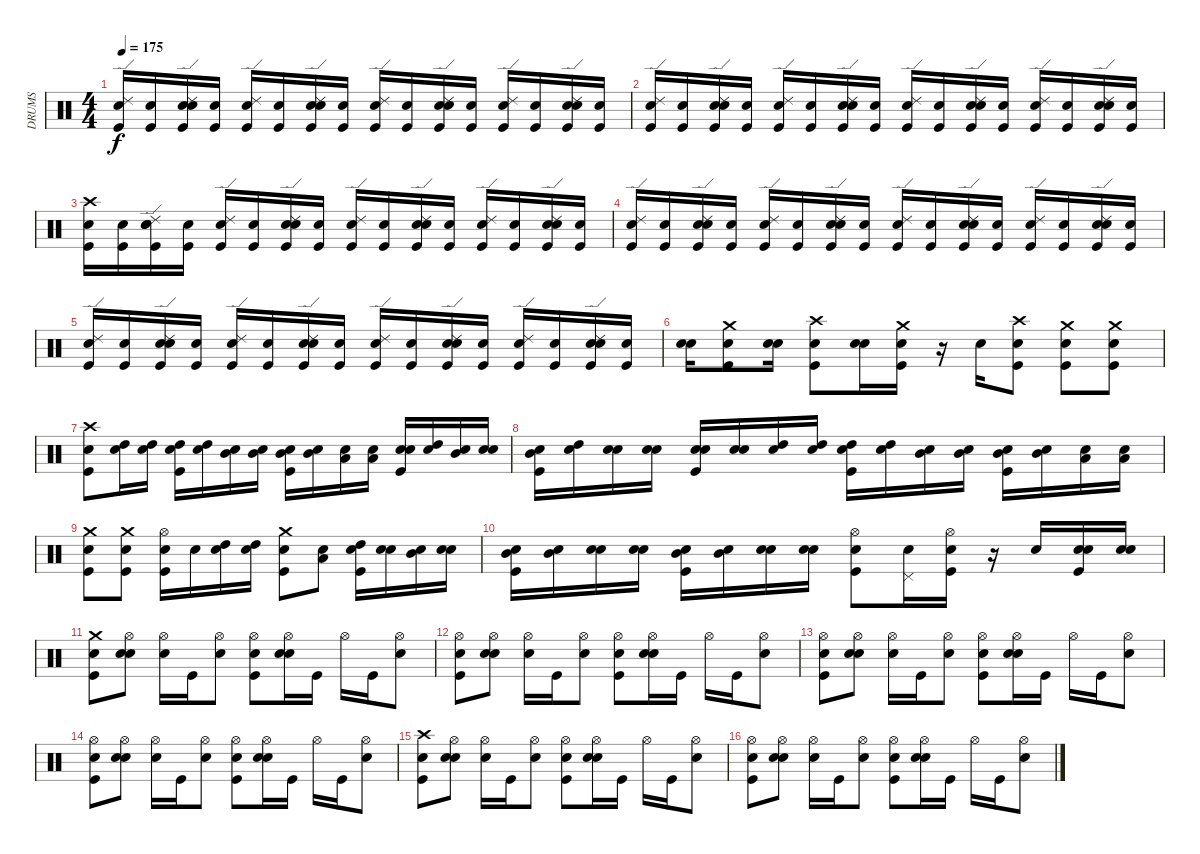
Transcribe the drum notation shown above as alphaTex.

\track ("DRUMS" "DRUMS") {instrument percussion}
\staff {score}
\articulation defaults
\ts (4 4)
\tempo 175
\clef neutral
\ks c
("Snare (hit)" "Kick (hit)" "Ride (edge) 2").16{dy f} ("Snare (hit)" "Kick (hit)").16 ("Snare (hit)" "Kick (hit)" "Snare (hit) 2" "Ride (edge) 2").16 ("Snare (hit)" "Kick (hit)").16 ("Snare (hit)" "Kick (hit)" "Ride (edge) 2").16 ("Snare (hit)" "Kick (hit)").16 ("Snare (hit)" "Kick (hit)" "Snare (hit) 2" "Ride (edge) 2").16 ("Snare (hit)" "Kick (hit)").16 ("Snare (hit)" "Kick (hit)" "Ride (edge) 2").16 ("Snare (hit)" "Kick (hit)").16 ("Snare (hit)" "Kick (hit)" "Snare (hit) 2" "Ride (edge) 2").16 ("Snare (hit)" "Kick (hit)").16 ("Snare (hit)" "Kick (hit)" "Ride (edge) 2").16 ("Snare (hit)" "Kick (hit)").16 ("Snare (hit)" "Kick (hit)" "Snare (hit) 2" "Ride (edge) 2").16 ("Snare (hit)" "Kick (hit)").16 |
("Snare (hit)" "Kick (hit)" "Ride (edge) 2").16 ("Snare (hit)" "Kick (hit)").16 ("Snare (hit)" "Kick (hit)" "Snare (hit) 2" "Ride (edge) 2").16 ("Snare (hit)" "Kick (hit)").16 ("Snare (hit)" "Kick (hit)" "Ride (edge) 2").16 ("Snare (hit)" "Kick (hit)").16 ("Snare (hit)" "Kick (hit)" "Snare (hit) 2" "Ride (edge) 2").16 ("Snare (hit)" "Kick (hit)").16 ("Snare (hit)" "Kick (hit)" "Ride (edge) 2").16 ("Snare (hit)" "Kick (hit)").16 ("Snare (hit)" "Kick (hit)" "Snare (hit) 2" "Ride (edge) 2").16 ("Snare (hit)" "Kick (hit)").16 ("Snare (hit)" "Kick (hit)" "Ride (edge) 2").16 ("Snare (hit)" "Kick (hit)").16 ("Snare (hit)" "Kick (hit)" "Snare (hit) 2" "Ride (edge) 2").16 ("Snare (hit)" "Kick (hit)").16 |
("Snare (hit)" "Kick (hit)" "Crash high (hit)").16 ("Snare (hit)" "Kick (hit)").16 ("Snare (hit)" "Kick (hit)" "Snare (hit) 2" "Ride (edge) 2").16 ("Snare (hit)" "Kick (hit)").16 ("Snare (hit)" "Kick (hit)" "Ride (edge) 2").16 ("Snare (hit)" "Kick (hit)").16 ("Snare (hit)" "Kick (hit)" "Snare (hit) 2" "Ride (edge) 2").16 ("Snare (hit)" "Kick (hit)").16 ("Snare (hit)" "Kick (hit)" "Ride (edge) 2").16 ("Snare (hit)" "Kick (hit)").16 ("Snare (hit)" "Kick (hit)" "Snare (hit) 2" "Ride (edge) 2").16 ("Snare (hit)" "Kick (hit)").16 ("Snare (hit)" "Kick (hit)" "Ride (edge) 2").16 ("Snare (hit)" "Kick (hit)").16 ("Snare (hit)" "Kick (hit)" "Snare (hit) 2" "Ride (edge) 2").16 ("Snare (hit)" "Kick (hit)").16 |
("Snare (hit)" "Kick (hit)" "Ride (edge) 2").16 ("Snare (hit)" "Kick (hit)").16 ("Snare (hit)" "Kick (hit)" "Snare (hit) 2" "Ride (edge) 2").16 ("Snare (hit)" "Kick (hit)").16 ("Snare (hit)" "Kick (hit)" "Ride (edge) 2").16 ("Snare (hit)" "Kick (hit)").16 ("Snare (hit)" "Kick (hit)" "Snare (hit) 2" "Ride (edge) 2").16 ("Snare (hit)" "Kick (hit)").16 ("Snare (hit)" "Kick (hit)" "Ride (edge) 2").16 ("Snare (hit)" "Kick (hit)").16 ("Snare (hit)" "Kick (hit)" "Snare (hit) 2" "Ride (edge) 2").16 ("Snare (hit)" "Kick (hit)").16 ("Snare (hit)" "Kick (hit)" "Ride (edge) 2").16 ("Snare (hit)" "Kick (hit)").16 ("Snare (hit)" "Kick (hit)" "Snare (hit) 2" "Ride (edge) 2").16 ("Snare (hit)" "Kick (hit)").16 |
("Snare (hit)" "Ride (edge) 2" "Kick (hit)").16 ("Snare (hit)" "Kick (hit)").16 ("Snare (hit)" "Ride (edge) 2" "Snare (hit) 2" "Kick (hit)").16 ("Snare (hit)" "Kick (hit)").16 ("Snare (hit)" "Ride (edge) 2" "Kick (hit)").16 ("Snare (hit)" "Kick (hit)").16 ("Snare (hit)" "Ride (edge) 2" "Snare (hit) 2" "Kick (hit)").16 ("Snare (hit)" "Kick (hit)").16 ("Snare (hit)" "Ride (edge) 2" "Kick (hit)").16 ("Snare (hit)" "Kick (hit)").16 ("Snare (hit)" "Ride (edge) 2" "Snare (hit) 2" "Kick (hit)").16 ("Snare (hit)" "Kick (hit)").16 ("Snare (hit)" "Ride (edge) 2" "Kick (hit)").16 ("Snare (hit)" "Kick (hit)").16 ("Snare (hit)" "Ride (edge) 2" "Snare (hit) 2" "Kick (hit)").16 ("Snare (hit)" "Kick (hit)").16 |
("Snare (hit)" "Snare (hit) 2").16 ("Snare (hit)" "Kick (hit)" "Crash medium (hit)").8 ("Snare (hit)" "Snare (hit) 2").16 ("Snare (hit)" "Kick (hit)" "Crash high (hit)").8 ("Snare (hit)" "Snare (hit) 2").16 ("Snare (hit)" "Kick (hit)" "Crash medium (hit)").16 r.16 "Snare (hit) 2".16 ("Snare (hit)" "Crash high (hit)" "Kick (hit)").8 ("Snare (hit)" "Crash medium (hit)" "Kick (hit)").8 ("Snare (hit)" "Crash medium (hit)" "Kick (hit)").8 |
("Snare (hit)" "Crash high (hit)" "Kick (hit)").8 ("Snare (hit)" "High Tom (hit)").16 ("Snare (hit)" "High Tom (hit)").16 ("Snare (hit)" "High Tom (hit)" "Kick (hit)").16 ("Snare (hit)" "High Tom (hit)").16 ("Snare (hit)" "Mid Tom (hit)").16 ("Snare (hit)" "Mid Tom (hit)").16 ("Snare (hit)" "Mid Tom (hit)" "Kick (hit)").16 ("Snare (hit)" "Mid Tom (hit)").16 ("Snare (hit)" "Low Tom (hit)").16 ("Snare (hit)" "Low Tom (hit)").16 ("Snare (hit)" "Snare (hit) 2" "Kick (hit)").16 ("Snare (hit)" "High Tom (hit)").16 ("Snare (hit)" "Mid Tom (hit)").16 ("Snare (hit)" "Snare (hit) 2").16 |
("Snare (hit)" "Mid Tom (hit)" "Kick (hit)").16 ("Snare (hit)" "High Tom (hit)").16 ("Snare (hit)" "Snare (hit) 2").16 ("Snare (hit)" "Snare (hit) 2").16 ("Snare (hit)" "Snare (hit) 2" "Kick (hit)").16 ("Snare (hit)" "Snare (hit) 2").16 ("Snare (hit)" "High Tom (hit)").16 ("Snare (hit)" "High Tom (hit)").16 ("Snare (hit)" "High Tom (hit)" "Kick (hit)").16 ("Snare (hit)" "High Tom (hit)").16 ("Snare (hit)" "Mid Tom (hit)").16 ("Snare (hit)" "Mid Tom (hit)").16 ("Snare (hit)" "Mid Tom (hit)" "Kick (hit)").16 ("Snare (hit)" "Mid Tom (hit)").16 ("Snare (hit)" "Low Tom (hit)").16 ("Snare (hit)" "Low Tom (hit)").16 |
("Snare (hit)" "Crash medium (hit)" "Kick (hit)").8 ("Snare (hit)" "Crash medium (hit)" "Kick (hit)").8 ("Snare (hit)" "Hi-Hat (open)" "Kick (hit)").16 "Snare (hit) 2".16 ("Snare (hit)" "High Tom (hit)").16 ("Snare (hit)" "High Tom (hit)").16 ("Snare (hit)" "Crash medium (hit)" "Kick (hit)").8 ("Snare (hit)" "Low Tom (hit)").8 ("Snare (hit)" "High Tom (hit)" "Kick (hit)").16 ("Snare (hit)" "Snare (hit) 2").16 ("Snare (hit)" "Mid Tom (hit)").16 ("Snare (hit)" "Snare (hit) 2").16 |
("Snare (hit)" "Mid Tom (hit)" "Kick (hit)").16 ("Snare (hit)" "Mid Tom (hit)").16 ("Snare (hit)" "Snare (hit) 2").16 ("Snare (hit)" "Snare (hit) 2").16 ("Snare (hit)" "Mid Tom (hit)" "Kick (hit)").16 ("Snare (hit)" "Mid Tom (hit)").16 ("Snare (hit)" "Snare (hit) 2").16 ("Snare (hit)" "Snare (hit) 2").16 ("Snare (hit)" "Hi-Hat (open)" "Kick (hit)").8 ("Snare (hit)" "Pedal Hi-Hat (hit)").16 ("Snare (hit)" "Hi-Hat (open)" "Kick (hit)").16 r.16 "Snare (hit) 2".16 ("Snare (hit)" "Snare (hit) 2" "Kick (hit)").16 ("Snare (hit)" "Snare (hit) 2").16 |
("Snare (hit)" "Crash medium (hit)" "Kick (hit)").8 ("Snare (hit)" "Hi-Hat (open)" "Snare (hit) 2").8 ("Snare (hit)" "Hi-Hat (open)").16 "Kick (hit)".16 ("Hi-Hat (open)" "Snare (hit) 2").8 ("Snare (hit)" "Hi-Hat (open)" "Kick (hit)").8 ("Snare (hit)" "Hi-Hat (open)" "Snare (hit) 2").16 "Kick (hit)".16 "Hi-Hat (open)".16 "Kick (hit)".16 ("Hi-Hat (open)" "Snare (hit) 2").8 |
("Snare (hit)" "Hi-Hat (open)" "Kick (hit)").8 ("Snare (hit)" "Hi-Hat (open)" "Snare (hit) 2").8 ("Snare (hit)" "Hi-Hat (open)").16 "Kick (hit)".16 ("Hi-Hat (open)" "Snare (hit) 2").8 ("Snare (hit)" "Hi-Hat (open)" "Kick (hit)").8 ("Snare (hit)" "Hi-Hat (open)" "Snare (hit) 2").16 "Kick (hit)".16 "Hi-Hat (open)".16 "Kick (hit)".16 ("Hi-Hat (open)" "Snare (hit) 2").8 |
("Snare (hit)" "Hi-Hat (open)" "Kick (hit)").8 ("Snare (hit)" "Hi-Hat (open)" "Snare (hit) 2").8 ("Snare (hit)" "Hi-Hat (open)").16 "Kick (hit)".16 ("Hi-Hat (open)" "Snare (hit) 2").8 ("Snare (hit)" "Hi-Hat (open)" "Kick (hit)").8 ("Snare (hit)" "Hi-Hat (open)" "Snare (hit) 2").16 "Kick (hit)".16 "Hi-Hat (open)".16 "Kick (hit)".16 ("Hi-Hat (open)" "Snare (hit) 2").8 |
("Snare (hit)" "Hi-Hat (open)" "Kick (hit)").8 ("Snare (hit)" "Hi-Hat (open)" "Snare (hit) 2").8 ("Snare (hit)" "Hi-Hat (open)").16 "Kick (hit)".16 ("Hi-Hat (open)" "Snare (hit) 2").8 ("Snare (hit)" "Hi-Hat (open)" "Kick (hit)").8 ("Snare (hit)" "Hi-Hat (open)" "Snare (hit) 2").16 "Kick (hit)".16 "Hi-Hat (open)".16 "Kick (hit)".16 ("Hi-Hat (open)" "Snare (hit) 2").8 |
("Snare (hit)" "Crash high (hit)" "Kick (hit)").8 ("Snare (hit)" "Hi-Hat (open)" "Snare (hit) 2").8 ("Snare (hit)" "Hi-Hat (open)").16 "Kick (hit)".16 ("Hi-Hat (open)" "Snare (hit) 2").8 ("Snare (hit)" "Hi-Hat (open)" "Kick (hit)").8 ("Snare (hit)" "Hi-Hat (open)" "Snare (hit) 2").16 "Kick (hit)".16 "Hi-Hat (open)".16 "Kick (hit)".16 ("Hi-Hat (open)" "Snare (hit) 2").8 |
("Snare (hit)" "Hi-Hat (open)" "Kick (hit)").8 ("Snare (hit)" "Hi-Hat (open)" "Snare (hit) 2").8 ("Snare (hit)" "Hi-Hat (open)").16 "Kick (hit)".16 ("Hi-Hat (open)" "Snare (hit) 2").8 ("Snare (hit)" "Hi-Hat (open)" "Kick (hit)").8 ("Snare (hit)" "Hi-Hat (open)" "Snare (hit) 2").16 "Kick (hit)".16 "Hi-Hat (open)".16 "Kick (hit)".16 ("Hi-Hat (open)" "Snare (hit) 2").8
